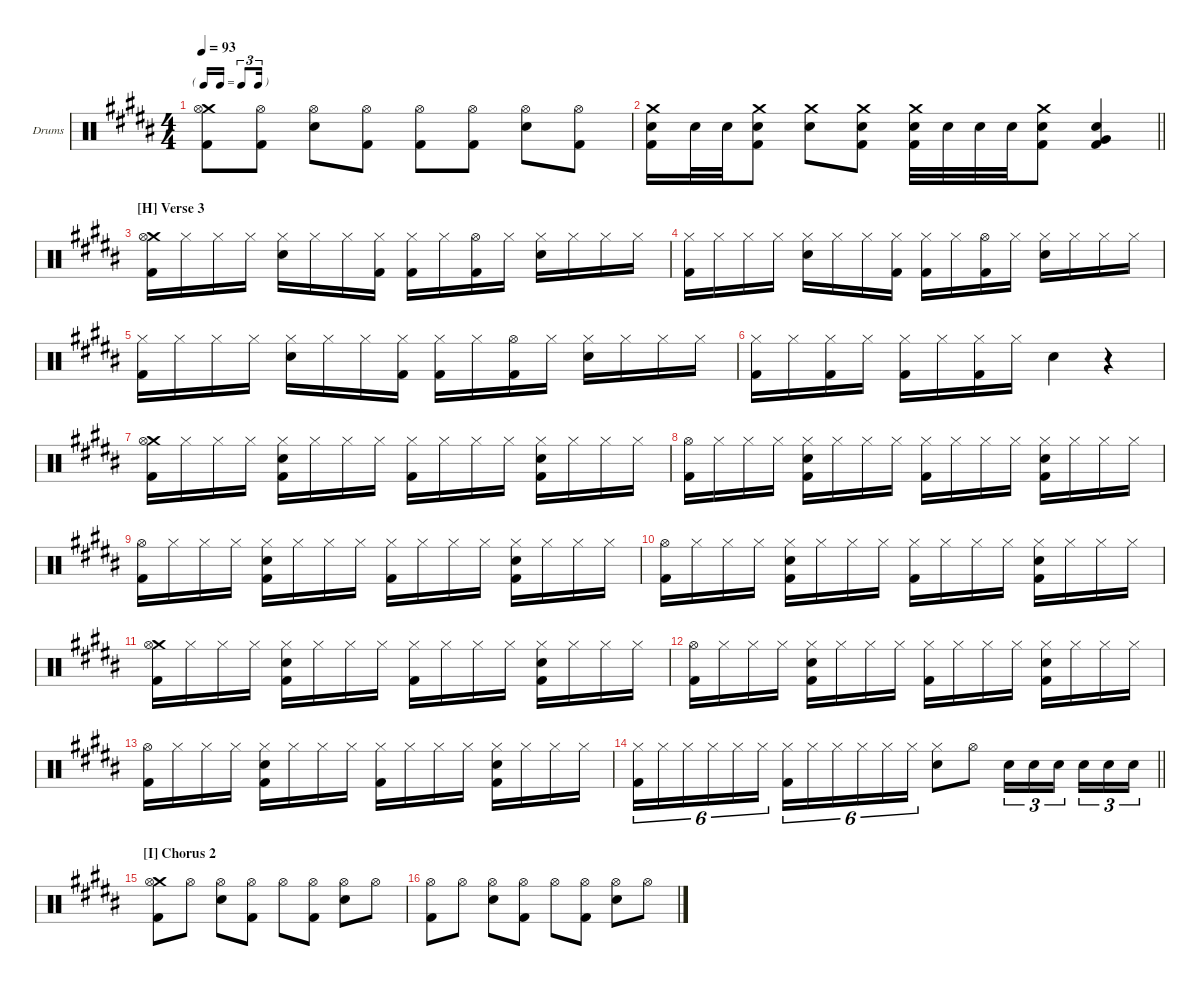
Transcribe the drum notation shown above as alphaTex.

\hideDynamics
\bracketExtendMode groupsimilarinstruments
\firstSystemTrackNameOrientation horizontal
\otherSystemsTrackNameOrientation horizontal
\track ("Drumkit" "Drums") {multiBarRest instrument percussion}
\staff {score}
\articulation defaults
\ts (4 4)
\tf triplet16th
\tempo 93
\clef neutral
\ks b
("Crash medium (hit)"{acc forcenatural} "Hi-Hat (open)"{acc forcenatural} "Kick (hit) 2"{acc forcenatural}).8{dy f} ("Hi-Hat (open)"{acc forcenatural} "Kick (hit) 2"{acc forcenatural}).8 ("Hi-Hat (open)"{acc forcenatural} "Snare (hit) 2"{acc forcenatural}).8 ("Hi-Hat (open)"{acc forcenatural} "Kick (hit) 2"{acc forcenatural}).8 ("Hi-Hat (open)"{acc forcenatural} "Kick (hit) 2"{acc forcenatural}).8 ("Hi-Hat (open)"{acc forcenatural} "Kick (hit) 2"{acc forcenatural}).8 ("Hi-Hat (open)"{acc forcenatural} "Snare (hit) 2"{acc forcenatural}).8 ("Hi-Hat (open)"{acc forcenatural} "Kick (hit) 2"{acc forcenatural}).8 |
\barLineRight lightlight
("Crash medium (hit)"{acc forcenatural} "Snare (hit) 2"{acc forcenatural} "Kick (hit) 2"{acc forcenatural}).16 "Snare (hit) 2"{acc forcenatural}.32 "Snare (hit) 2"{acc forcenatural}.32 ("Crash medium (hit)"{acc forcenatural} "Snare (hit) 2"{acc forcenatural} "Kick (hit) 2"{acc forcenatural}).8 ("Crash medium (hit)"{acc forcenatural} "Snare (hit) 2"{acc forcenatural}).8 ("Crash medium (hit)"{acc forcenatural} "Snare (hit) 2"{acc forcenatural} "Kick (hit) 2"{acc forcenatural}).8 ("Crash medium (hit)"{acc forcenatural} "Snare (hit) 2"{acc forcenatural} "Kick (hit) 2"{acc forcenatural}).32 "Snare (hit) 2"{acc forcenatural}.32{dy mp} "Snare (hit) 2"{acc forcenatural}.32{dy mf} "Snare (hit) 2"{acc forcenatural}.32 ("Crash medium (hit)"{acc forcenatural} "Snare (hit) 2"{acc forcenatural} "Kick (hit) 2"{acc forcenatural}).8{dy f} ("Snare (hit) 2"{acc forcenatural} "Very Low Tom (hit)"{acc forcenatural} "Kick (hit) 2"{acc forcenatural}).4 |
\section ("H" "Verse 3")
("Crash medium (hit)"{acc forcenatural} "Hi-Hat (open)"{acc forcenatural} "Kick (hit) 2"{acc forcenatural}).16 "Hi-Hat (closed)"{acc forcenatural}.16{dy mp} "Hi-Hat (closed)"{acc forcenatural}.16{dy mf} "Hi-Hat (closed)"{acc forcenatural}.16{dy mp} ("Hi-Hat (closed)"{acc forcenatural} "Snare (hit) 2"{acc forcenatural}).16{dy f} "Hi-Hat (closed)"{acc forcenatural}.16{dy mp} "Hi-Hat (closed)"{acc forcenatural}.16{dy mf} ("Hi-Hat (closed)"{acc forcenatural} "Kick (hit) 2"{acc forcenatural}).16{dy mp} ("Hi-Hat (closed)"{acc forcenatural} "Kick (hit) 2"{acc forcenatural}).16{dy f} "Hi-Hat (closed)"{acc forcenatural}.16{dy mp} ("Hi-Hat (open)"{acc forcenatural} "Kick (hit) 2"{acc forcenatural}).16{dy mf} "Hi-Hat (closed)"{acc forcenatural}.16{dy mp} ("Hi-Hat (closed)"{acc forcenatural} "Snare (hit) 2"{acc forcenatural}).16{dy f} "Hi-Hat (closed)"{acc forcenatural}.16{dy mp} "Hi-Hat (closed)"{acc forcenatural}.16{dy mf} "Hi-Hat (closed)"{acc forcenatural}.16{dy mp} |
("Kick (hit) 2"{acc forcenatural} "Hi-Hat (closed)"{acc forcenatural}).16{dy f} "Hi-Hat (closed)"{acc forcenatural}.16{dy mp} "Hi-Hat (closed)"{acc forcenatural}.16{dy mf} "Hi-Hat (closed)"{acc forcenatural}.16{dy mp} ("Hi-Hat (closed)"{acc forcenatural} "Snare (hit) 2"{acc forcenatural}).16{dy f} "Hi-Hat (closed)"{acc forcenatural}.16{dy mp} "Hi-Hat (closed)"{acc forcenatural}.16{dy mf} ("Hi-Hat (closed)"{acc forcenatural} "Kick (hit) 2"{acc forcenatural}).16{dy mp} ("Hi-Hat (closed)"{acc forcenatural} "Kick (hit) 2"{acc forcenatural}).16{dy f} "Hi-Hat (closed)"{acc forcenatural}.16{dy mp} ("Hi-Hat (open)"{acc forcenatural} "Kick (hit) 2"{acc forcenatural}).16{dy mf} "Hi-Hat (closed)"{acc forcenatural}.16{dy mp} ("Hi-Hat (closed)"{acc forcenatural} "Snare (hit) 2"{acc forcenatural}).16{dy f} "Hi-Hat (closed)"{acc forcenatural}.16{dy mp} "Hi-Hat (closed)"{acc forcenatural}.16{dy mf} "Hi-Hat (closed)"{acc forcenatural}.16{dy mp} |
("Kick (hit) 2"{acc forcenatural} "Hi-Hat (closed)"{acc forcenatural}).16{dy f} "Hi-Hat (closed)"{acc forcenatural}.16{dy mp} "Hi-Hat (closed)"{acc forcenatural}.16{dy mf} "Hi-Hat (closed)"{acc forcenatural}.16{dy mp} ("Hi-Hat (closed)"{acc forcenatural} "Snare (hit) 2"{acc forcenatural}).16{dy f} "Hi-Hat (closed)"{acc forcenatural}.16{dy mp} "Hi-Hat (closed)"{acc forcenatural}.16{dy mf} ("Hi-Hat (closed)"{acc forcenatural} "Kick (hit) 2"{acc forcenatural}).16{dy mp} ("Hi-Hat (closed)"{acc forcenatural} "Kick (hit) 2"{acc forcenatural}).16{dy f} "Hi-Hat (closed)"{acc forcenatural}.16{dy mp} ("Hi-Hat (open)"{acc forcenatural} "Kick (hit) 2"{acc forcenatural}).16{dy mf} "Hi-Hat (closed)"{acc forcenatural}.16{dy mp} ("Hi-Hat (closed)"{acc forcenatural} "Snare (hit) 2"{acc forcenatural}).16{dy f} "Hi-Hat (closed)"{acc forcenatural}.16{dy mp} "Hi-Hat (closed)"{acc forcenatural}.16{dy mf} "Hi-Hat (closed)"{acc forcenatural}.16{dy mp} |
("Kick (hit) 2"{acc forcenatural} "Hi-Hat (closed)"{acc forcenatural}).16{dy f} "Hi-Hat (closed)"{acc forcenatural}.16{dy mp} ("Kick (hit) 2"{acc forcenatural} "Hi-Hat (closed)"{acc forcenatural}).16{dy mf} "Hi-Hat (closed)"{acc forcenatural}.16{dy mp} ("Kick (hit) 2"{acc forcenatural} "Hi-Hat (closed)"{acc forcenatural}).16{dy f} "Hi-Hat (closed)"{acc forcenatural}.16{dy mp} ("Kick (hit) 2"{acc forcenatural} "Hi-Hat (closed)"{acc forcenatural}).16{dy mf} "Hi-Hat (closed)"{acc forcenatural}.16{dy mp} "Snare (hit) 2"{acc forcenatural}.4{dy f} r.4 |
("Crash medium (hit)"{acc forcenatural} "Hi-Hat (open)"{acc forcenatural} "Kick (hit) 2"{acc forcenatural}).16 "Hi-Hat (closed)"{acc forcenatural}.16{dy mp} "Hi-Hat (closed)"{acc forcenatural}.16{dy mf} "Hi-Hat (closed)"{acc forcenatural}.16{dy mp} ("Hi-Hat (closed)"{acc forcenatural} "Snare (hit) 2"{acc forcenatural} "Kick (hit) 2"{acc forcenatural}).16{dy f} "Hi-Hat (closed)"{acc forcenatural}.16{dy mp} "Hi-Hat (closed)"{acc forcenatural}.16{dy mf} "Hi-Hat (closed)"{acc forcenatural}.16{dy mp} ("Hi-Hat (closed)"{acc forcenatural} "Kick (hit) 2"{acc forcenatural}).16{dy f} "Hi-Hat (closed)"{acc forcenatural}.16{dy mp} "Hi-Hat (closed)"{acc forcenatural}.16{dy mf} "Hi-Hat (closed)"{acc forcenatural}.16{dy mp} ("Hi-Hat (closed)"{acc forcenatural} "Snare (hit) 2"{acc forcenatural} "Kick (hit) 2"{acc forcenatural}).16{dy f} "Hi-Hat (closed)"{acc forcenatural}.16{dy mp} "Hi-Hat (closed)"{acc forcenatural}.16{dy mf} "Hi-Hat (closed)"{acc forcenatural}.16{dy mp} |
("Hi-Hat (open)"{acc forcenatural} "Kick (hit) 2"{acc forcenatural}).16{dy f} "Hi-Hat (closed)"{acc forcenatural}.16{dy mp} "Hi-Hat (closed)"{acc forcenatural}.16{dy mf} "Hi-Hat (closed)"{acc forcenatural}.16{dy mp} ("Hi-Hat (closed)"{acc forcenatural} "Snare (hit) 2"{acc forcenatural} "Kick (hit) 2"{acc forcenatural}).16{dy f} "Hi-Hat (closed)"{acc forcenatural}.16{dy mp} "Hi-Hat (closed)"{acc forcenatural}.16{dy mf} "Hi-Hat (closed)"{acc forcenatural}.16{dy mp} ("Hi-Hat (closed)"{acc forcenatural} "Kick (hit) 2"{acc forcenatural}).16{dy f} "Hi-Hat (closed)"{acc forcenatural}.16{dy mp} "Hi-Hat (closed)"{acc forcenatural}.16{dy mf} "Hi-Hat (closed)"{acc forcenatural}.16{dy mp} ("Hi-Hat (closed)"{acc forcenatural} "Snare (hit) 2"{acc forcenatural} "Kick (hit) 2"{acc forcenatural}).16{dy f} "Hi-Hat (closed)"{acc forcenatural}.16{dy mp} "Hi-Hat (closed)"{acc forcenatural}.16{dy mf} "Hi-Hat (closed)"{acc forcenatural}.16{dy mp} |
("Hi-Hat (open)"{acc forcenatural} "Kick (hit) 2"{acc forcenatural}).16{dy f} "Hi-Hat (closed)"{acc forcenatural}.16{dy mp} "Hi-Hat (closed)"{acc forcenatural}.16{dy mf} "Hi-Hat (closed)"{acc forcenatural}.16{dy mp} ("Hi-Hat (closed)"{acc forcenatural} "Snare (hit) 2"{acc forcenatural} "Kick (hit) 2"{acc forcenatural}).16{dy f} "Hi-Hat (closed)"{acc forcenatural}.16{dy mp} "Hi-Hat (closed)"{acc forcenatural}.16{dy mf} "Hi-Hat (closed)"{acc forcenatural}.16{dy mp} ("Hi-Hat (closed)"{acc forcenatural} "Kick (hit) 2"{acc forcenatural}).16{dy f} "Hi-Hat (closed)"{acc forcenatural}.16{dy mp} "Hi-Hat (closed)"{acc forcenatural}.16{dy mf} "Hi-Hat (closed)"{acc forcenatural}.16{dy mp} ("Hi-Hat (closed)"{acc forcenatural} "Snare (hit) 2"{acc forcenatural} "Kick (hit) 2"{acc forcenatural}).16{dy f} "Hi-Hat (closed)"{acc forcenatural}.16{dy mp} "Hi-Hat (closed)"{acc forcenatural}.16{dy mf} "Hi-Hat (closed)"{acc forcenatural}.16{dy mp} |
("Hi-Hat (open)"{acc forcenatural} "Kick (hit) 2"{acc forcenatural}).16{dy f} "Hi-Hat (closed)"{acc forcenatural}.16{dy mp} "Hi-Hat (closed)"{acc forcenatural}.16{dy mf} "Hi-Hat (closed)"{acc forcenatural}.16{dy mp} ("Hi-Hat (closed)"{acc forcenatural} "Snare (hit) 2"{acc forcenatural} "Kick (hit) 2"{acc forcenatural}).16{dy f} "Hi-Hat (closed)"{acc forcenatural}.16{dy mp} "Hi-Hat (closed)"{acc forcenatural}.16{dy mf} "Hi-Hat (closed)"{acc forcenatural}.16{dy mp} ("Hi-Hat (closed)"{acc forcenatural} "Kick (hit) 2"{acc forcenatural}).16{dy f} "Hi-Hat (closed)"{acc forcenatural}.16{dy mp} "Hi-Hat (closed)"{acc forcenatural}.16{dy mf} "Hi-Hat (closed)"{acc forcenatural}.16{dy mp} ("Hi-Hat (closed)"{acc forcenatural} "Snare (hit) 2"{acc forcenatural} "Kick (hit) 2"{acc forcenatural}).16{dy f} "Hi-Hat (closed)"{acc forcenatural}.16{dy mp} "Hi-Hat (closed)"{acc forcenatural}.16{dy mf} "Hi-Hat (closed)"{acc forcenatural}.16{dy mp} |
("Crash medium (hit)"{acc forcenatural} "Hi-Hat (open)"{acc forcenatural} "Kick (hit) 2"{acc forcenatural}).16{dy f} "Hi-Hat (closed)"{acc forcenatural}.16{dy mp} "Hi-Hat (closed)"{acc forcenatural}.16{dy mf} "Hi-Hat (closed)"{acc forcenatural}.16{dy mp} ("Hi-Hat (closed)"{acc forcenatural} "Snare (hit) 2"{acc forcenatural} "Kick (hit) 2"{acc forcenatural}).16{dy f} "Hi-Hat (closed)"{acc forcenatural}.16{dy mp} "Hi-Hat (closed)"{acc forcenatural}.16{dy mf} "Hi-Hat (closed)"{acc forcenatural}.16{dy mp} ("Hi-Hat (closed)"{acc forcenatural} "Kick (hit) 2"{acc forcenatural}).16{dy f} "Hi-Hat (closed)"{acc forcenatural}.16{dy mp} "Hi-Hat (closed)"{acc forcenatural}.16{dy mf} "Hi-Hat (closed)"{acc forcenatural}.16{dy mp} ("Hi-Hat (closed)"{acc forcenatural} "Snare (hit) 2"{acc forcenatural} "Kick (hit) 2"{acc forcenatural}).16{dy f} "Hi-Hat (closed)"{acc forcenatural}.16{dy mp} "Hi-Hat (closed)"{acc forcenatural}.16{dy mf} "Hi-Hat (closed)"{acc forcenatural}.16{dy mp} |
("Hi-Hat (open)"{acc forcenatural} "Kick (hit) 2"{acc forcenatural}).16{dy f} "Hi-Hat (closed)"{acc forcenatural}.16{dy mp} "Hi-Hat (closed)"{acc forcenatural}.16{dy mf} "Hi-Hat (closed)"{acc forcenatural}.16{dy mp} ("Hi-Hat (closed)"{acc forcenatural} "Snare (hit) 2"{acc forcenatural} "Kick (hit) 2"{acc forcenatural}).16{dy f} "Hi-Hat (closed)"{acc forcenatural}.16{dy mp} "Hi-Hat (closed)"{acc forcenatural}.16{dy mf} "Hi-Hat (closed)"{acc forcenatural}.16{dy mp} ("Hi-Hat (closed)"{acc forcenatural} "Kick (hit) 2"{acc forcenatural}).16{dy f} "Hi-Hat (closed)"{acc forcenatural}.16{dy mp} "Hi-Hat (closed)"{acc forcenatural}.16{dy mf} "Hi-Hat (closed)"{acc forcenatural}.16{dy mp} ("Hi-Hat (closed)"{acc forcenatural} "Snare (hit) 2"{acc forcenatural} "Kick (hit) 2"{acc forcenatural}).16{dy f} "Hi-Hat (closed)"{acc forcenatural}.16{dy mp} "Hi-Hat (closed)"{acc forcenatural}.16{dy mf} "Hi-Hat (closed)"{acc forcenatural}.16{dy mp} |
("Hi-Hat (open)"{acc forcenatural} "Kick (hit) 2"{acc forcenatural}).16{dy f} "Hi-Hat (closed)"{acc forcenatural}.16{dy mp} "Hi-Hat (closed)"{acc forcenatural}.16{dy mf} "Hi-Hat (closed)"{acc forcenatural}.16{dy mp} ("Hi-Hat (closed)"{acc forcenatural} "Snare (hit) 2"{acc forcenatural} "Kick (hit) 2"{acc forcenatural}).16{dy f} "Hi-Hat (closed)"{acc forcenatural}.16{dy mp} "Hi-Hat (closed)"{acc forcenatural}.16{dy mf} "Hi-Hat (closed)"{acc forcenatural}.16{dy mp} ("Hi-Hat (closed)"{acc forcenatural} "Kick (hit) 2"{acc forcenatural}).16{dy f} "Hi-Hat (closed)"{acc forcenatural}.16{dy mp} "Hi-Hat (closed)"{acc forcenatural}.16{dy mf} "Hi-Hat (closed)"{acc forcenatural}.16{dy mp} ("Hi-Hat (closed)"{acc forcenatural} "Snare (hit) 2"{acc forcenatural} "Kick (hit) 2"{acc forcenatural}).16{dy f} "Hi-Hat (closed)"{acc forcenatural}.16{dy mp} "Hi-Hat (closed)"{acc forcenatural}.16{dy mf} "Hi-Hat (closed)"{acc forcenatural}.16{dy mp} |
\barLineRight lightlight
("Hi-Hat (closed)"{acc forcenatural} "Kick (hit) 2"{acc forcenatural}).16{tu (6 4) dy f} "Hi-Hat (closed)"{acc forcenatural}.16{tu (6 4)} "Hi-Hat (closed)"{acc forcenatural}.16{tu (6 4)} "Hi-Hat (closed)"{acc forcenatural}.16{tu (6 4)} "Hi-Hat (closed)"{acc forcenatural}.16{tu (6 4)} "Hi-Hat (closed)"{acc forcenatural}.16{tu (6 4)} ("Hi-Hat (closed)"{acc forcenatural} "Kick (hit) 2"{acc forcenatural}).16{tu (6 4)} "Hi-Hat (closed)"{acc forcenatural}.16{tu (6 4)} "Hi-Hat (closed)"{acc forcenatural}.16{tu (6 4)} "Hi-Hat (closed)"{acc forcenatural}.16{tu (6 4)} "Hi-Hat (closed)"{acc forcenatural}.16{tu (6 4)} "Hi-Hat (closed)"{acc forcenatural}.16{tu (6 4)} ("Snare (hit) 2"{acc forcenatural} "Hi-Hat (closed)"{acc forcenatural}).8 "Hi-Hat (open)"{acc forcenatural}.8 "Snare (hit) 2"{acc forcenatural}.16{tu (3 2)} "Snare (hit) 2"{acc forcenatural}.16{tu (3 2)} "Snare (hit) 2"{acc forcenatural}.16{tu (3 2)} "Snare (hit) 2"{acc forcenatural}.16{tu (3 2)} "Snare (hit) 2"{acc forcenatural}.16{tu (3 2)} "Snare (hit) 2"{acc forcenatural}.16{tu (3 2)} |
\section ("I" "Chorus 2")
("Crash medium (hit)"{acc forcenatural} "Hi-Hat (open)"{acc forcenatural} "Kick (hit) 2"{acc forcenatural}).8 "Hi-Hat (open)"{acc forcenatural}.8 ("Hi-Hat (open)"{acc forcenatural} "Snare (hit) 2"{acc forcenatural}).8 ("Hi-Hat (open)"{acc forcenatural} "Kick (hit) 2"{acc forcenatural}).8 "Hi-Hat (open)"{acc forcenatural}.8 ("Hi-Hat (open)"{acc forcenatural} "Kick (hit) 2"{acc forcenatural}).8 ("Hi-Hat (open)"{acc forcenatural} "Snare (hit) 2"{acc forcenatural}).8 "Hi-Hat (open)"{acc forcenatural}.8 |
("Hi-Hat (open)"{acc forcenatural} "Kick (hit) 2"{acc forcenatural}).8 "Hi-Hat (open)"{acc forcenatural}.8 ("Hi-Hat (open)"{acc forcenatural} "Snare (hit) 2"{acc forcenatural}).8 ("Hi-Hat (open)"{acc forcenatural} "Kick (hit) 2"{acc forcenatural}).8 "Hi-Hat (open)"{acc forcenatural}.8 ("Hi-Hat (open)"{acc forcenatural} "Kick (hit) 2"{acc forcenatural}).8 ("Hi-Hat (open)"{acc forcenatural} "Snare (hit) 2"{acc forcenatural}).8 "Hi-Hat (open)"{acc forcenatural}.8
